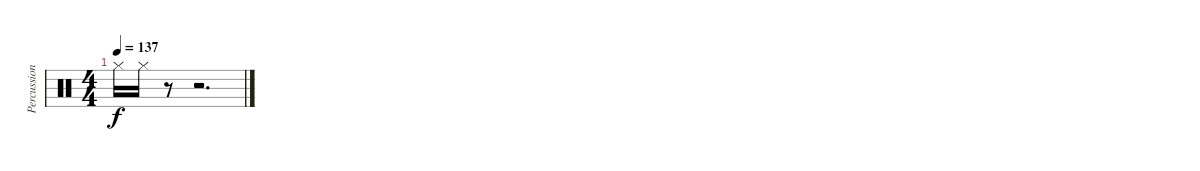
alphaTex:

\track ("Percussions" "Percussion") {instrument percussion}
\staff {score}
\articulation defaults
\ts (4 4)
\tempo 137
\clef neutral
\ks c "Hi-Hat (closed)".16{dy f} "Hi-Hat (closed)".16
r.8 r.2{d}
